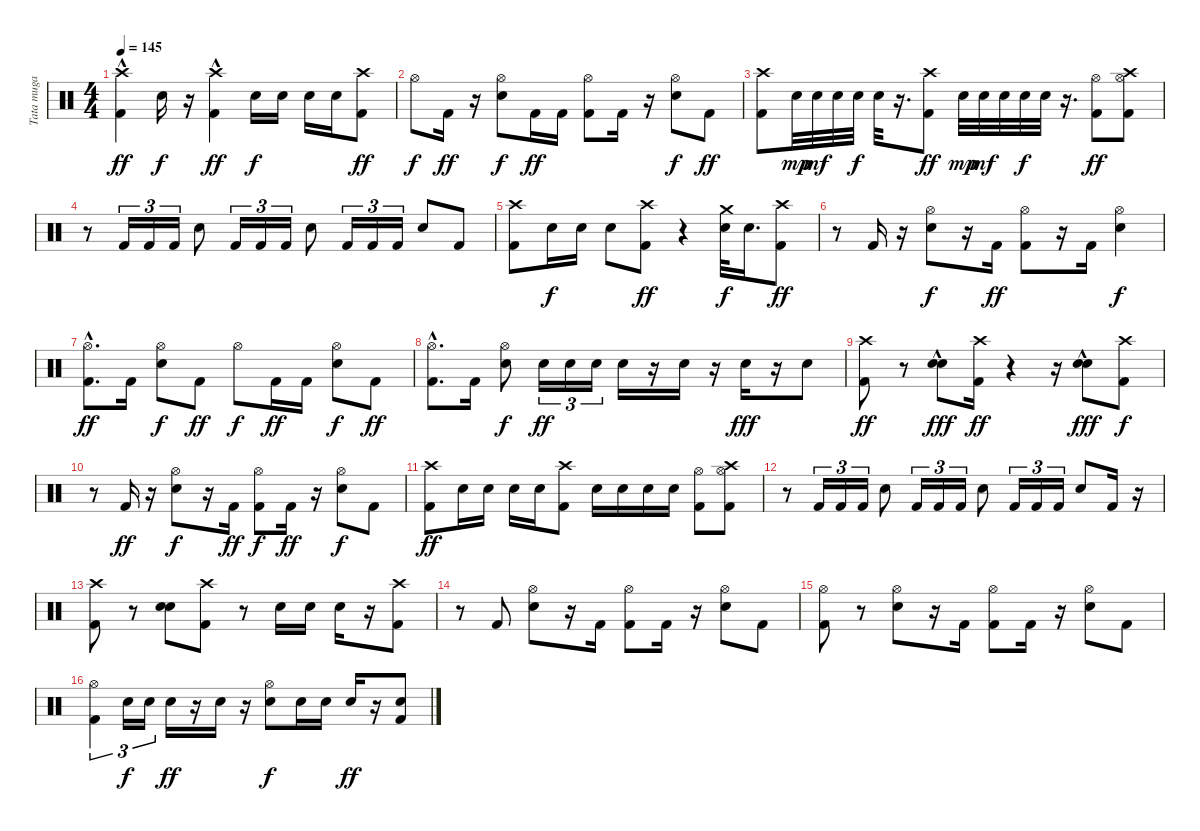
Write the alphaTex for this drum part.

\track ("Tata muga" "Tata muga") {instrument percussion}
\staff {score}
\articulation defaults
\ts (4 4)
\tempo 145
\clef neutral
\ks c
("Crash high (hit)"{hac} "Kick (hit) 2"{hac}).4{dy ff} "Electric Snare (hit)".16{dy f} r.16 ("Crash high (hit)"{hac} "Kick (hit) 2"{hac}).4{dy ff} "Electric Snare (hit)".16{dy f} "Electric Snare (hit)".16 "Electric Snare (hit)".16 "Electric Snare (hit)".16 ("Crash high (hit)" "Kick (hit) 2").8{dy ff} |
"Hi-Hat (open)".8{dy f} "Kick (hit) 2".16{dy ff} r.16 ("Hi-Hat (open)" "Electric Snare (hit)").8{dy f} "Kick (hit) 2".16{dy ff} "Kick (hit) 2".16 ("Hi-Hat (open)" "Kick (hit) 2").8 "Kick (hit) 2".16 r.16 ("Hi-Hat (open)" "Electric Snare (hit)").8{dy f} "Kick (hit) 2".8{dy ff} |
("Crash high (hit)" "Kick (hit) 2").8 "Electric Snare (hit)".32{dy mp} "Electric Snare (hit)".32{dy mf} "Electric Snare (hit)".32 "Electric Snare (hit)".32{dy f} "Electric Snare (hit)".32 r.16{d} ("Crash high (hit)" "Kick (hit) 2").8{dy ff} "Electric Snare (hit)".32{dy mp} "Electric Snare (hit)".32{dy mf} "Electric Snare (hit)".32 "Electric Snare (hit)".32{dy f} "Electric Snare (hit)".32 r.16{d} ("Hi-Hat (open)" "Kick (hit) 2").8{dy ff} ("Hi-Hat (open)" "Crash high (hit)" "Kick (hit) 2").8 |
r.8 "Kick (hit) 2".16{tu (3 2)} "Kick (hit) 2".16{tu (3 2)} "Kick (hit) 2".16{tu (3 2)} "Electric Snare (hit)".8 "Kick (hit) 2".16{tu (3 2)} "Kick (hit) 2".16{tu (3 2)} "Kick (hit) 2".16{tu (3 2)} "Electric Snare (hit)".8 "Kick (hit) 2".16{tu (3 2)} "Kick (hit) 2".16{tu (3 2)} "Kick (hit) 2".16{tu (3 2)} "Electric Snare (hit)".8 "Kick (hit) 2".8 |
("Crash high (hit)" "Kick (hit) 2").8 "Electric Snare (hit)".16{dy f} "Electric Snare (hit)".16 "Electric Snare (hit)".8 ("Crash high (hit)" "Kick (hit) 2").8{dy ff} r.4 ("Crash medium (hit)" "Electric Snare (hit)").32{dy f} "Electric Snare (hit)".16{d} ("Crash high (hit)" "Kick (hit) 2").8{dy ff} |
r.8 "Kick (hit) 2".16 r.16 ("Hi-Hat (open)" "Electric Snare (hit)").8{dy f} r.16 "Kick (hit) 2".16{dy ff} ("Hi-Hat (open)" "Kick (hit) 2").8 r.16 "Kick (hit) 2".16 ("Hi-Hat (open)" "Electric Snare (hit)").4{dy f} |
("Hi-Hat (open)"{hac} "Kick (hit) 2"{hac}).8{d dy ff} "Kick (hit) 2".16 ("Hi-Hat (open)" "Electric Snare (hit)").8{dy f} "Kick (hit) 2".8{dy ff} "Hi-Hat (open)".8{dy f} "Kick (hit) 2".16{dy ff} "Kick (hit) 2".16 ("Hi-Hat (open)" "Electric Snare (hit)").8{dy f} "Kick (hit) 2".8{dy ff} |
("Hi-Hat (open)"{hac} "Kick (hit) 2"{hac}).8{d} "Kick (hit) 2".16 ("Hi-Hat (open)" "Electric Snare (hit)").8{dy f} "Electric Snare (hit)".16{tu (3 2) dy ff} "Electric Snare (hit)".16{tu (3 2)} "Electric Snare (hit)".16{tu (3 2)} "Electric Snare (hit)".16 r.16 "Electric Snare (hit)".16 r.16 "Electric Snare (hit)".16{dy fff} r.16 "Electric Snare (hit)".8 |
("Crash high (hit)" "Kick (hit) 2").8{dy ff} r.8 ("Electric Snare (hit)" "Electric Snare (hit)"{hac}).8{dy fff} ("Crash high (hit)" "Kick (hit) 2").16{dy ff} r.4 r.16 ("Electric Snare (hit)" "Electric Snare (hit)"{hac}).8{dy fff} ("Kick (hit) 2" "Crash high (hit)").8{dy f} |
r.8 "Kick (hit) 2".16{dy ff} r.16 ("Hi-Hat (open)" "Electric Snare (hit)").8{dy f} r.16 "Kick (hit) 2".16{dy ff} ("Kick (hit) 2" "Hi-Hat (open)").8{dy f} "Kick (hit) 2".16{dy ff} r.16 ("Hi-Hat (open)" "Electric Snare (hit)").8{dy f} "Kick (hit) 2".8 |
("Crash high (hit)" "Kick (hit) 2").8{dy ff} "Electric Snare (hit)".16 "Electric Snare (hit)".16 "Electric Snare (hit)".16 "Electric Snare (hit)".16 ("Crash high (hit)" "Kick (hit) 2").8 "Electric Snare (hit)".16 "Electric Snare (hit)".16 "Electric Snare (hit)".16 "Electric Snare (hit)".16 ("Hi-Hat (open)" "Kick (hit) 2").8 ("Hi-Hat (open)" "Crash high (hit)" "Kick (hit) 2").8 |
r.8 "Kick (hit) 2".16{tu (3 2)} "Kick (hit) 2".16{tu (3 2)} "Kick (hit) 2".16{tu (3 2)} "Electric Snare (hit)".8 "Kick (hit) 2".16{tu (3 2)} "Kick (hit) 2".16{tu (3 2)} "Kick (hit) 2".16{tu (3 2)} "Electric Snare (hit)".8 "Kick (hit) 2".16{tu (3 2)} "Kick (hit) 2".16{tu (3 2)} "Kick (hit) 2".16{tu (3 2)} "Electric Snare (hit)".8 "Kick (hit) 2".16 r.16 |
("Crash high (hit)" "Kick (hit) 2").8 r.8 ("Electric Snare (hit)" "Electric Snare (hit)").8 ("Crash high (hit)" "Kick (hit) 2").8 r.8 "Electric Snare (hit)".16 "Electric Snare (hit)".16 "Electric Snare (hit)".16 r.16 ("Kick (hit) 2" "Crash high (hit)").8 |
r.8 "Kick (hit) 2".8 ("Hi-Hat (open)" "Electric Snare (hit)").8 r.16 "Kick (hit) 2".16 ("Hi-Hat (open)" "Kick (hit) 2").8 "Kick (hit) 2".16 r.16 ("Hi-Hat (open)" "Electric Snare (hit)").8 "Kick (hit) 2".8 |
("Hi-Hat (open)" "Kick (hit) 2").8 r.8 ("Hi-Hat (open)" "Electric Snare (hit)").8 r.16 "Kick (hit) 2".16 ("Hi-Hat (open)" "Kick (hit) 2").8 "Kick (hit) 2".16 r.16 ("Hi-Hat (open)" "Electric Snare (hit)").8 "Kick (hit) 2".8 |
("Kick (hit) 2" "Hi-Hat (open)").4{tu (3 2)} "Electric Snare (hit)".16{tu (3 2) dy f} "Electric Snare (hit)".16{tu (3 2)} "Electric Snare (hit)".16{dy ff} r.16 "Electric Snare (hit)".16 r.16 ("Hi-Hat (open)" "Electric Snare (hit)").8{dy f} "Electric Snare (hit)".16 "Electric Snare (hit)".16 "Electric Snare (hit)".16{dy ff} r.16 ("Electric Snare (hit)" "Kick (hit) 2").8
